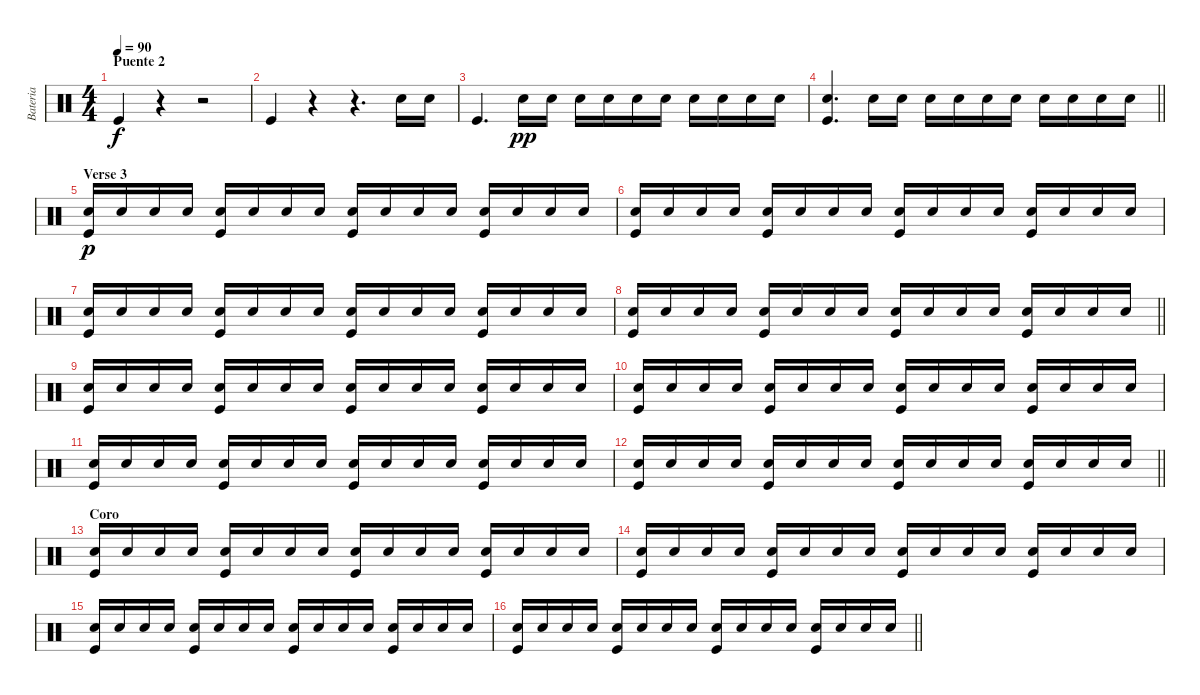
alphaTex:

\track ("Bateria" "Bateria") {instrument percussion}
\staff {score}
\articulation defaults
\ts (4 4)
\section ("" "Puente 2")
\tempo 90
\clef neutral
\ks c "Kick (hit)".4{dy f}
r.4 r.2 |
"Kick (hit)".4 r.4 r.4{d} "Snare (hit) 2".16 "Snare (hit) 2".16 |
"Kick (hit)".4{d} "Snare (hit) 2".16{dy pp} "Snare (hit) 2".16 "Snare (hit) 2".16 "Snare (hit) 2".16 "Snare (hit) 2".16 "Snare (hit) 2".16 "Snare (hit) 2".16 "Snare (hit) 2".16 "Snare (hit) 2".16 "Snare (hit) 2".16 |
\barLineRight lightlight
("Snare (hit) 2" "Kick (hit)").4{d} "Snare (hit) 2".16 "Snare (hit) 2".16 "Snare (hit) 2".16 "Snare (hit) 2".16 "Snare (hit) 2".16 "Snare (hit) 2".16 "Snare (hit) 2".16 "Snare (hit) 2".16 "Snare (hit) 2".16 "Snare (hit) 2".16 |
\section ("" "Verse 3")
("Snare (hit) 2" "Kick (hit)").16{dy p} "Snare (hit) 2".16 "Snare (hit) 2".16 "Snare (hit) 2".16 ("Snare (hit) 2" "Kick (hit)").16 "Snare (hit) 2".16 "Snare (hit) 2".16 "Snare (hit) 2".16 ("Snare (hit) 2" "Kick (hit)").16 "Snare (hit) 2".16 "Snare (hit) 2".16 "Snare (hit) 2".16 ("Snare (hit) 2" "Kick (hit)").16 "Snare (hit) 2".16 "Snare (hit) 2".16 "Snare (hit) 2".16 |
("Snare (hit) 2" "Kick (hit)").16 "Snare (hit) 2".16 "Snare (hit) 2".16 "Snare (hit) 2".16 ("Snare (hit) 2" "Kick (hit)").16 "Snare (hit) 2".16 "Snare (hit) 2".16 "Snare (hit) 2".16 ("Snare (hit) 2" "Kick (hit)").16 "Snare (hit) 2".16 "Snare (hit) 2".16 "Snare (hit) 2".16 ("Snare (hit) 2" "Kick (hit)").16 "Snare (hit) 2".16 "Snare (hit) 2".16 "Snare (hit) 2".16 |
("Snare (hit) 2" "Kick (hit)").16 "Snare (hit) 2".16 "Snare (hit) 2".16 "Snare (hit) 2".16 ("Snare (hit) 2" "Kick (hit)").16 "Snare (hit) 2".16 "Snare (hit) 2".16 "Snare (hit) 2".16 ("Snare (hit) 2" "Kick (hit)").16 "Snare (hit) 2".16 "Snare (hit) 2".16 "Snare (hit) 2".16 ("Snare (hit) 2" "Kick (hit)").16 "Snare (hit) 2".16 "Snare (hit) 2".16 "Snare (hit) 2".16 |
\barLineRight lightlight
("Snare (hit) 2" "Kick (hit)").16 "Snare (hit) 2".16 "Snare (hit) 2".16 "Snare (hit) 2".16 ("Snare (hit) 2" "Kick (hit)").16 "Snare (hit) 2".16 "Snare (hit) 2".16 "Snare (hit) 2".16 ("Snare (hit) 2" "Kick (hit)").16 "Snare (hit) 2".16 "Snare (hit) 2".16 "Snare (hit) 2".16 ("Snare (hit) 2" "Kick (hit)").16 "Snare (hit) 2".16 "Snare (hit) 2".16 "Snare (hit) 2".16 |
("Snare (hit) 2" "Kick (hit)").16 "Snare (hit) 2".16 "Snare (hit) 2".16 "Snare (hit) 2".16 ("Snare (hit) 2" "Kick (hit)").16 "Snare (hit) 2".16 "Snare (hit) 2".16 "Snare (hit) 2".16 ("Snare (hit) 2" "Kick (hit)").16 "Snare (hit) 2".16 "Snare (hit) 2".16 "Snare (hit) 2".16 ("Snare (hit) 2" "Kick (hit)").16 "Snare (hit) 2".16 "Snare (hit) 2".16 "Snare (hit) 2".16 |
("Snare (hit) 2" "Kick (hit)").16 "Snare (hit) 2".16 "Snare (hit) 2".16 "Snare (hit) 2".16 ("Snare (hit) 2" "Kick (hit)").16 "Snare (hit) 2".16 "Snare (hit) 2".16 "Snare (hit) 2".16 ("Snare (hit) 2" "Kick (hit)").16 "Snare (hit) 2".16 "Snare (hit) 2".16 "Snare (hit) 2".16 ("Snare (hit) 2" "Kick (hit)").16 "Snare (hit) 2".16 "Snare (hit) 2".16 "Snare (hit) 2".16 |
("Snare (hit) 2" "Kick (hit)").16 "Snare (hit) 2".16 "Snare (hit) 2".16 "Snare (hit) 2".16 ("Snare (hit) 2" "Kick (hit)").16 "Snare (hit) 2".16 "Snare (hit) 2".16 "Snare (hit) 2".16 ("Snare (hit) 2" "Kick (hit)").16 "Snare (hit) 2".16 "Snare (hit) 2".16 "Snare (hit) 2".16 ("Snare (hit) 2" "Kick (hit)").16 "Snare (hit) 2".16 "Snare (hit) 2".16 "Snare (hit) 2".16 |
\barLineRight lightlight
("Snare (hit) 2" "Kick (hit)").16 "Snare (hit) 2".16 "Snare (hit) 2".16 "Snare (hit) 2".16 ("Snare (hit) 2" "Kick (hit)").16 "Snare (hit) 2".16 "Snare (hit) 2".16 "Snare (hit) 2".16 ("Snare (hit) 2" "Kick (hit)").16 "Snare (hit) 2".16 "Snare (hit) 2".16 "Snare (hit) 2".16 ("Snare (hit) 2" "Kick (hit)").16 "Snare (hit) 2".16 "Snare (hit) 2".16 "Snare (hit) 2".16 |
\section ("" "Coro")
("Snare (hit) 2" "Kick (hit)").16 "Snare (hit) 2".16 "Snare (hit) 2".16 "Snare (hit) 2".16 ("Snare (hit) 2" "Kick (hit)").16 "Snare (hit) 2".16 "Snare (hit) 2".16 "Snare (hit) 2".16 ("Snare (hit) 2" "Kick (hit)").16 "Snare (hit) 2".16 "Snare (hit) 2".16 "Snare (hit) 2".16 ("Snare (hit) 2" "Kick (hit)").16 "Snare (hit) 2".16 "Snare (hit) 2".16 "Snare (hit) 2".16 |
("Snare (hit) 2" "Kick (hit)").16 "Snare (hit) 2".16 "Snare (hit) 2".16 "Snare (hit) 2".16 ("Snare (hit) 2" "Kick (hit)").16 "Snare (hit) 2".16 "Snare (hit) 2".16 "Snare (hit) 2".16 ("Snare (hit) 2" "Kick (hit)").16 "Snare (hit) 2".16 "Snare (hit) 2".16 "Snare (hit) 2".16 ("Snare (hit) 2" "Kick (hit)").16 "Snare (hit) 2".16 "Snare (hit) 2".16 "Snare (hit) 2".16 |
("Snare (hit) 2" "Kick (hit)").16 "Snare (hit) 2".16 "Snare (hit) 2".16 "Snare (hit) 2".16 ("Snare (hit) 2" "Kick (hit)").16 "Snare (hit) 2".16 "Snare (hit) 2".16 "Snare (hit) 2".16 ("Snare (hit) 2" "Kick (hit)").16 "Snare (hit) 2".16 "Snare (hit) 2".16 "Snare (hit) 2".16 ("Snare (hit) 2" "Kick (hit)").16 "Snare (hit) 2".16 "Snare (hit) 2".16 "Snare (hit) 2".16 |
\barLineRight lightlight
("Snare (hit) 2" "Kick (hit)").16 "Snare (hit) 2".16 "Snare (hit) 2".16 "Snare (hit) 2".16 ("Snare (hit) 2" "Kick (hit)").16 "Snare (hit) 2".16 "Snare (hit) 2".16 "Snare (hit) 2".16 ("Snare (hit) 2" "Kick (hit)").16 "Snare (hit) 2".16 "Snare (hit) 2".16 "Snare (hit) 2".16 ("Snare (hit) 2" "Kick (hit)").16 "Snare (hit) 2".16 "Snare (hit) 2".16 "Snare (hit) 2".16
